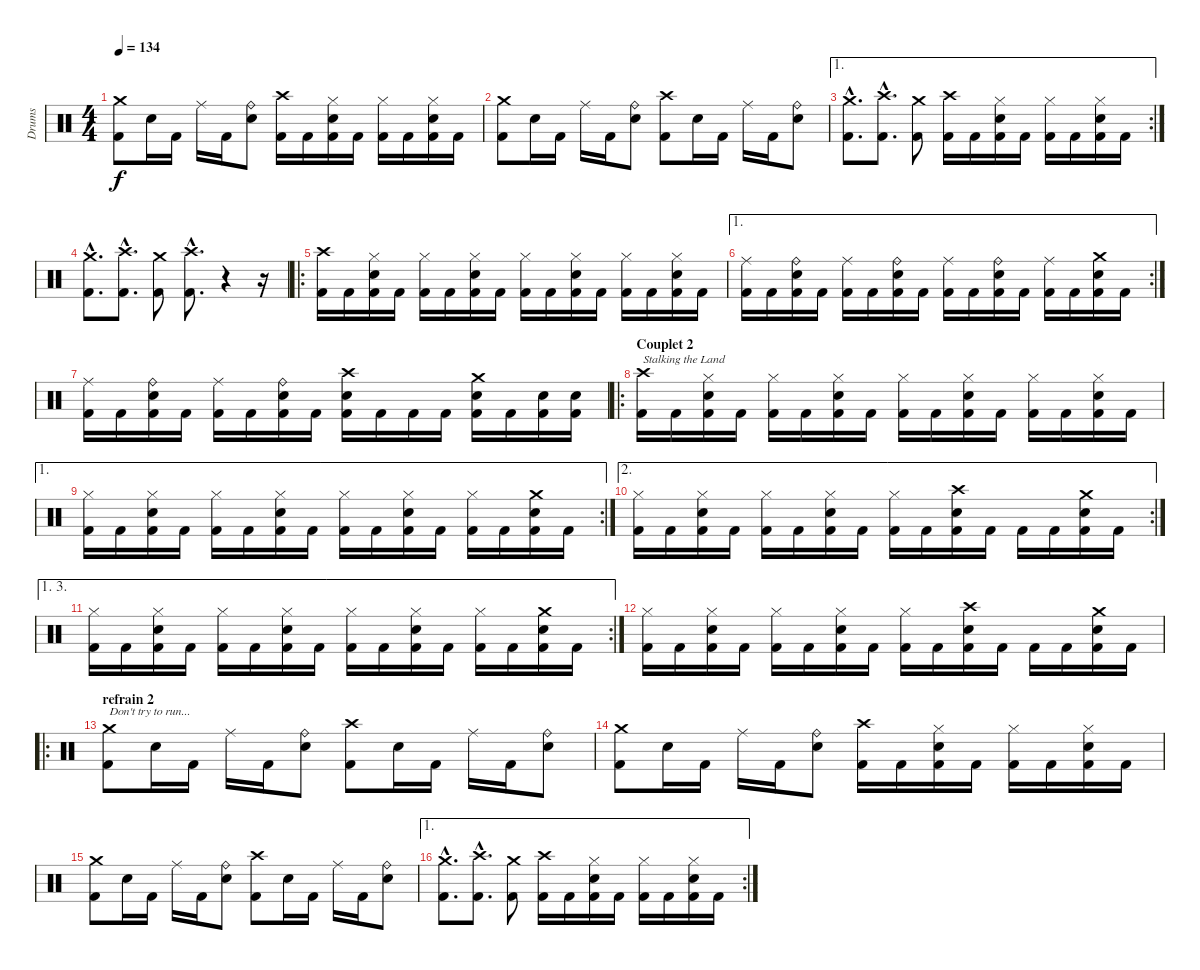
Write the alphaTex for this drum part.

\track ("Drums" "Drums") {instrument percussion}
\staff {score}
\articulation defaults
\ts (4 4)
\tempo 134
\clef neutral
\ks c
("Crash medium (hit)" "Kick (hit) 2").8{dy f} "Electric Snare (hit)".16 "Kick (hit) 2".16 "Ride (middle)".16 "Kick (hit) 2".16 ("Ride (bell)" "Electric Snare (hit)").8 ("Crash high (hit)" "Kick (hit) 2").16 "Kick (hit) 2".16 ("Hi-Hat (closed)" "Electric Snare (hit)" "Kick (hit) 2").16 "Kick (hit) 2".16 ("Hi-Hat (closed)" "Kick (hit) 2").16 "Kick (hit) 2".16 ("Hi-Hat (closed)" "Electric Snare (hit)" "Kick (hit) 2").16 "Kick (hit) 2".16 |
("Crash medium (hit)" "Kick (hit) 2").8 "Electric Snare (hit)".16 "Kick (hit) 2".16 "Ride (middle)".16 "Kick (hit) 2".16 ("Ride (bell)" "Electric Snare (hit)").8 ("Crash high (hit)" "Kick (hit) 2").8 "Electric Snare (hit)".16 "Kick (hit) 2".16 "Ride (middle)".16 "Kick (hit) 2".16 ("Ride (bell)" "Electric Snare (hit)").8 |
\ae 1
\rc 2
("Crash medium (hit)"{hac} "Kick (hit) 2"{hac}).8{d} ("Crash high (hit)"{hac} "Kick (hit) 2"{hac}).8{d} ("Crash medium (hit)" "Kick (hit) 2").8 ("Crash high (hit)" "Kick (hit) 2").16 "Kick (hit) 2".16 ("Hi-Hat (closed)" "Electric Snare (hit)" "Kick (hit) 2").16 "Kick (hit) 2".16 ("Hi-Hat (closed)" "Kick (hit) 2").16 "Kick (hit) 2".16 ("Hi-Hat (closed)" "Electric Snare (hit)" "Kick (hit) 2").16 "Kick (hit) 2".16 |
("Crash medium (hit)"{hac} "Kick (hit) 2"{hac}).8{d} ("Crash high (hit)"{hac} "Kick (hit) 2"{hac}).8{d} ("Crash medium (hit)" "Kick (hit) 2").8 ("Crash high (hit)"{hac} "Kick (hit) 2"{hac}).8{d} r.4 r.16 |
\ro
("Crash high (hit)" "Kick (hit) 2").16 "Kick (hit) 2".16 ("Hi-Hat (closed)" "Electric Snare (hit)" "Kick (hit) 2").16 "Kick (hit) 2".16 ("Hi-Hat (closed)" "Kick (hit) 2").16 "Kick (hit) 2".16 ("Hi-Hat (closed)" "Electric Snare (hit)" "Kick (hit) 2").16 "Kick (hit) 2".16 ("Hi-Hat (closed)" "Kick (hit) 2").16 "Kick (hit) 2".16 ("Hi-Hat (closed)" "Electric Snare (hit)" "Kick (hit) 2").16 "Kick (hit) 2".16 ("Hi-Hat (closed)" "Kick (hit) 2").16 "Kick (hit) 2".16 ("Hi-Hat (closed)" "Electric Snare (hit)" "Kick (hit) 2").16 "Kick (hit) 2".16 |
\ae 1
\rc 2
("Ride (middle)" "Kick (hit) 2").16 "Kick (hit) 2".16 ("Ride (bell)" "Electric Snare (hit)" "Kick (hit) 2").16 "Kick (hit) 2".16 ("Ride (middle)" "Kick (hit) 2").16 "Kick (hit) 2".16 ("Ride (bell)" "Electric Snare (hit)" "Kick (hit) 2").16 "Kick (hit) 2".16 ("Ride (middle)" "Kick (hit) 2").16 "Kick (hit) 2".16 ("Ride (bell)" "Electric Snare (hit)" "Kick (hit) 2").16 "Kick (hit) 2".16 ("Ride (middle)" "Kick (hit) 2").16 "Kick (hit) 2".16 ("Crash medium (hit)" "Electric Snare (hit)" "Kick (hit) 2").16 "Kick (hit) 2".16 |
("Ride (middle)" "Kick (hit) 2").16 "Kick (hit) 2".16 ("Ride (bell)" "Electric Snare (hit)" "Kick (hit) 2").16 "Kick (hit) 2".16 ("Ride (middle)" "Kick (hit) 2").16 "Kick (hit) 2".16 ("Ride (bell)" "Electric Snare (hit)" "Kick (hit) 2").16 "Kick (hit) 2".16 ("Crash high (hit)" "Electric Snare (hit)" "Kick (hit) 2").16 "Kick (hit) 2".16 "Kick (hit) 2".16 "Kick (hit) 2".16 ("Crash medium (hit)" "Electric Snare (hit)" "Kick (hit) 2").16 "Kick (hit) 2".16 ("Electric Snare (hit)" "Kick (hit) 2").16 ("Electric Snare (hit)" "Kick (hit) 2").16 |
\ro
\section ("" "Couplet 2")
("Crash high (hit)" "Kick (hit) 2").16{txt "Stalking the Land"} "Kick (hit) 2".16 ("Hi-Hat (closed)" "Electric Snare (hit)" "Kick (hit) 2").16 "Kick (hit) 2".16 ("Hi-Hat (closed)" "Kick (hit) 2").16 "Kick (hit) 2".16 ("Hi-Hat (closed)" "Electric Snare (hit)" "Kick (hit) 2").16 "Kick (hit) 2".16 ("Hi-Hat (closed)" "Kick (hit) 2").16 "Kick (hit) 2".16 ("Hi-Hat (closed)" "Electric Snare (hit)" "Kick (hit) 2").16 "Kick (hit) 2".16 ("Hi-Hat (closed)" "Kick (hit) 2").16 "Kick (hit) 2".16 ("Hi-Hat (closed)" "Electric Snare (hit)" "Kick (hit) 2").16 "Kick (hit) 2".16 |
\ae 1
\rc 2
("Hi-Hat (closed)" "Kick (hit) 2").16 "Kick (hit) 2".16 ("Hi-Hat (closed)" "Electric Snare (hit)" "Kick (hit) 2").16 "Kick (hit) 2".16 ("Hi-Hat (closed)" "Kick (hit) 2").16 "Kick (hit) 2".16 ("Hi-Hat (closed)" "Electric Snare (hit)" "Kick (hit) 2").16 "Kick (hit) 2".16 ("Hi-Hat (closed)" "Kick (hit) 2").16 "Kick (hit) 2".16 ("Hi-Hat (closed)" "Electric Snare (hit)" "Kick (hit) 2").16 "Kick (hit) 2".16 ("Hi-Hat (closed)" "Kick (hit) 2").16 "Kick (hit) 2".16 ("Crash medium (hit)" "Electric Snare (hit)" "Kick (hit) 2").16 "Kick (hit) 2".16 |
\ae 2
\rc 2
("Hi-Hat (closed)" "Kick (hit) 2").16 "Kick (hit) 2".16 ("Hi-Hat (closed)" "Electric Snare (hit)" "Kick (hit) 2").16 "Kick (hit) 2".16 ("Hi-Hat (closed)" "Kick (hit) 2").16 "Kick (hit) 2".16 ("Hi-Hat (closed)" "Electric Snare (hit)" "Kick (hit) 2").16 "Kick (hit) 2".16 ("Hi-Hat (closed)" "Kick (hit) 2").16 "Kick (hit) 2".16 ("Crash high (hit)" "Electric Snare (hit)" "Kick (hit) 2").16 "Kick (hit) 2".16 "Kick (hit) 2".16 "Kick (hit) 2".16 ("Crash medium (hit)" "Electric Snare (hit)" "Kick (hit) 2").16 "Kick (hit) 2".16 |
\ae (1 3)
\rc 2
("Hi-Hat (closed)" "Kick (hit) 2").16 "Kick (hit) 2".16 ("Hi-Hat (closed)" "Electric Snare (hit)" "Kick (hit) 2").16 "Kick (hit) 2".16 ("Hi-Hat (closed)" "Kick (hit) 2").16 "Kick (hit) 2".16 ("Hi-Hat (closed)" "Electric Snare (hit)" "Kick (hit) 2").16 "Kick (hit) 2".16 ("Hi-Hat (closed)" "Kick (hit) 2").16 "Kick (hit) 2".16 ("Hi-Hat (closed)" "Electric Snare (hit)" "Kick (hit) 2").16 "Kick (hit) 2".16 ("Hi-Hat (closed)" "Kick (hit) 2").16 "Kick (hit) 2".16 ("Crash medium (hit)" "Electric Snare (hit)" "Kick (hit) 2").16 "Kick (hit) 2".16 |
("Hi-Hat (closed)" "Kick (hit) 2").16 "Kick (hit) 2".16 ("Hi-Hat (closed)" "Electric Snare (hit)" "Kick (hit) 2").16 "Kick (hit) 2".16 ("Hi-Hat (closed)" "Kick (hit) 2").16 "Kick (hit) 2".16 ("Hi-Hat (closed)" "Electric Snare (hit)" "Kick (hit) 2").16 "Kick (hit) 2".16 ("Hi-Hat (closed)" "Kick (hit) 2").16 "Kick (hit) 2".16 ("Crash high (hit)" "Electric Snare (hit)" "Kick (hit) 2").16 "Kick (hit) 2".16 "Kick (hit) 2".16 "Kick (hit) 2".16 ("Crash medium (hit)" "Electric Snare (hit)" "Kick (hit) 2").16 "Kick (hit) 2".16 |
\ro
\section ("" "refrain 2")
("Crash medium (hit)" "Kick (hit) 2").8{txt "Don't try to run..."} "Electric Snare (hit)".16 "Kick (hit) 2".16 "Ride (middle)".16 "Kick (hit) 2".16 ("Ride (bell)" "Electric Snare (hit)").8 ("Crash high (hit)" "Kick (hit) 2").8 "Electric Snare (hit)".16 "Kick (hit) 2".16 "Ride (middle)".16 "Kick (hit) 2".16 ("Ride (bell)" "Electric Snare (hit)").8 |
("Crash medium (hit)" "Kick (hit) 2").8 "Electric Snare (hit)".16 "Kick (hit) 2".16 "Ride (middle)".16 "Kick (hit) 2".16 ("Ride (bell)" "Electric Snare (hit)").8 ("Crash high (hit)" "Kick (hit) 2").16 "Kick (hit) 2".16 ("Hi-Hat (closed)" "Electric Snare (hit)" "Kick (hit) 2").16 "Kick (hit) 2".16 ("Hi-Hat (closed)" "Kick (hit) 2").16 "Kick (hit) 2".16 ("Hi-Hat (closed)" "Electric Snare (hit)" "Kick (hit) 2").16 "Kick (hit) 2".16 |
("Crash medium (hit)" "Kick (hit) 2").8 "Electric Snare (hit)".16 "Kick (hit) 2".16 "Ride (middle)".16 "Kick (hit) 2".16 ("Ride (bell)" "Electric Snare (hit)").8 ("Crash high (hit)" "Kick (hit) 2").8 "Electric Snare (hit)".16 "Kick (hit) 2".16 "Ride (middle)".16 "Kick (hit) 2".16 ("Ride (bell)" "Electric Snare (hit)").8 |
\ae 1
\rc 2
("Crash medium (hit)"{hac} "Kick (hit) 2"{hac}).8{d} ("Crash high (hit)"{hac} "Kick (hit) 2"{hac}).8{d} ("Crash medium (hit)" "Kick (hit) 2").8 ("Crash high (hit)" "Kick (hit) 2").16 "Kick (hit) 2".16 ("Hi-Hat (closed)" "Electric Snare (hit)" "Kick (hit) 2").16 "Kick (hit) 2".16 ("Hi-Hat (closed)" "Kick (hit) 2").16 "Kick (hit) 2".16 ("Hi-Hat (closed)" "Electric Snare (hit)" "Kick (hit) 2").16 "Kick (hit) 2".16
